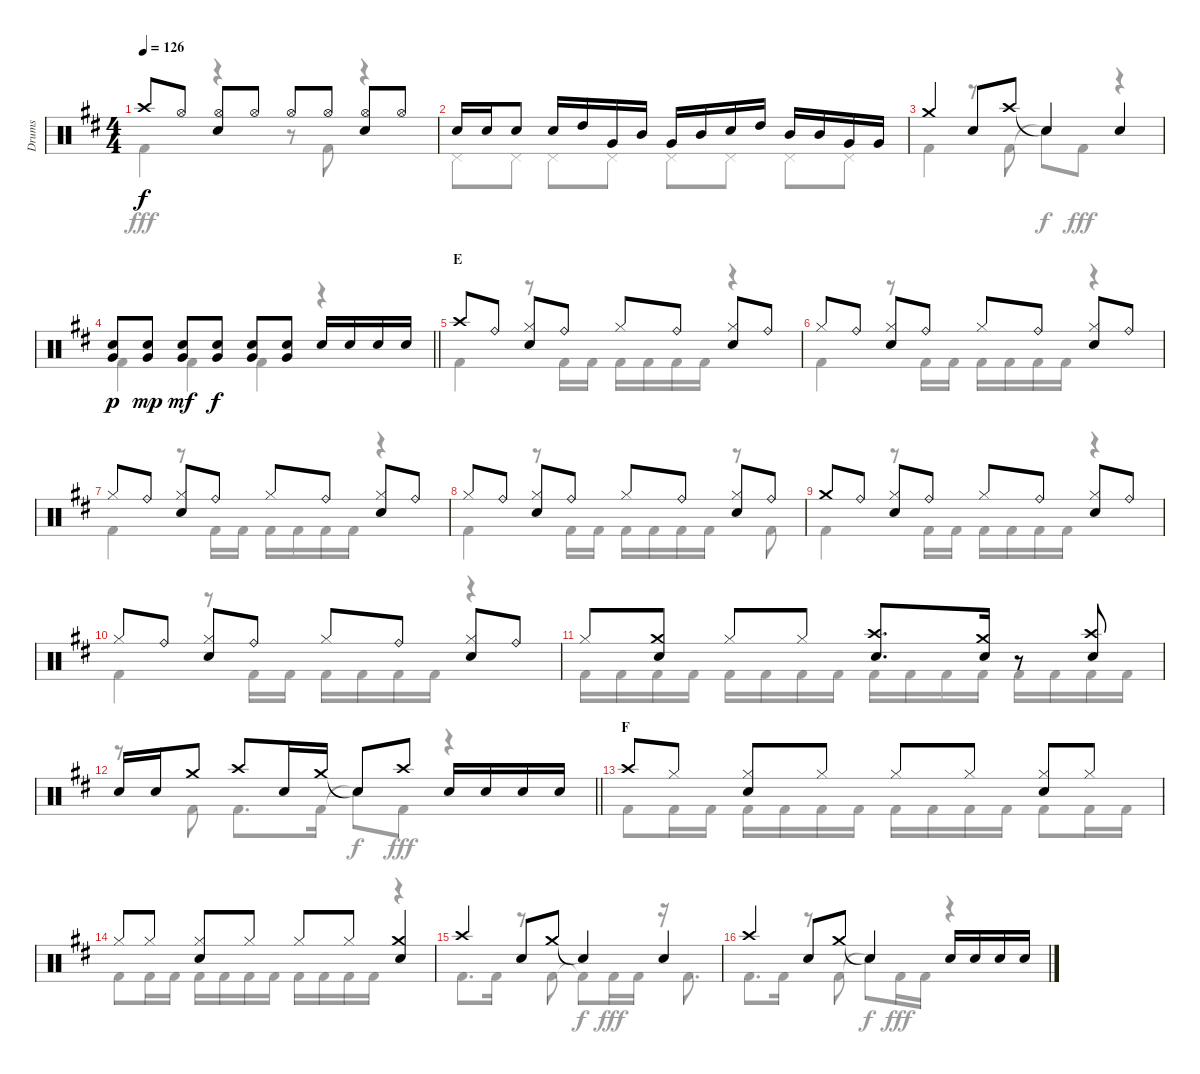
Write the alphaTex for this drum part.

\track ("Drums" "Drums") {instrument percussion}
\staff {score}
\articulation defaults
\voice
\ts (4 4)
\tempo 126
\clef neutral
\ks d "Crash high (hit)".8{dy f} "Hi-Hat (open)".8
("Hi-Hat (open)" "Snare (hit) 2").8 "Hi-Hat (open)".8 "Hi-Hat (open)".8 "Hi-Hat (open)".8 ("Hi-Hat (open)" "Snare (hit) 2").8 "Hi-Hat (open)".8 |
"Snare (hit) 2".16 "Snare (hit) 2".16 "Snare (hit) 2".8 "Snare (hit) 2".16 "High Tom (hit)".16 "Very Low Tom (hit)".16 "Mid Tom (hit)".16 "Very Low Tom (hit)".16 "Mid Tom (hit)".16 "Snare (hit) 2".16 "High Tom (hit)".16 "Mid Tom (hit)".16 "Mid Tom (hit)".16 "Very Low Tom (hit)".16 "Very Low Tom (hit)".16 |
"Crash medium (hit)".4 "Snare (hit) 2".8 "Crash high (hit)".8 "Snare (hit)"{t}.4 "Snare (hit) 2".4 |
\barLineRight lightlight
("Snare (hit) 2" "Very Low Tom (hit)").8{dy p} ("Snare (hit) 2" "Very Low Tom (hit)").8{dy mp} ("Snare (hit) 2" "Very Low Tom (hit)").8{dy mf} ("Snare (hit) 2" "Very Low Tom (hit)").8{dy f} ("Snare (hit) 2" "Very Low Tom (hit)").8 ("Snare (hit) 2" "Very Low Tom (hit)").8 "Snare (hit) 2".16 "Snare (hit) 2".16 "Snare (hit) 2".16 "Snare (hit) 2".16 |
\section ("" "E")
"Crash high (hit)".8 "Ride (bell)".8 ("Hi-Hat (closed)" "Snare (hit) 2").8 "Ride (bell)".8 "Hi-Hat (closed)".8 "Ride (bell)".8 ("Hi-Hat (closed)" "Snare (hit) 2").8 "Ride (bell)".8 |
"Hi-Hat (closed)".8 "Ride (bell)".8 ("Hi-Hat (closed)" "Snare (hit) 2").8 "Ride (bell)".8 "Hi-Hat (closed)".8 "Ride (bell)".8 ("Hi-Hat (closed)" "Snare (hit) 2").8 "Ride (bell)".8 |
"Hi-Hat (closed)".8 "Ride (bell)".8 ("Hi-Hat (closed)" "Snare (hit) 2").8 "Ride (bell)".8 "Hi-Hat (closed)".8 "Ride (bell)".8 ("Hi-Hat (closed)" "Snare (hit) 2").8 "Ride (bell)".8 |
"Hi-Hat (closed)".8 "Ride (bell)".8 ("Hi-Hat (closed)" "Snare (hit) 2").8 "Ride (bell)".8 "Hi-Hat (closed)".8 "Ride (bell)".8 ("Hi-Hat (closed)" "Snare (hit) 2").8 "Ride (bell)".8 |
"Crash medium (hit)".8 "Ride (bell)".8 ("Hi-Hat (closed)" "Snare (hit) 2").8 "Ride (bell)".8 "Hi-Hat (closed)".8 "Ride (bell)".8 ("Hi-Hat (closed)" "Snare (hit) 2").8 "Ride (bell)".8 |
"Hi-Hat (closed)".8 "Ride (bell)".8 ("Hi-Hat (closed)" "Snare (hit) 2").8 "Ride (bell)".8 "Hi-Hat (closed)".8 "Ride (bell)".8 ("Hi-Hat (closed)" "Snare (hit) 2").8 "Ride (bell)".8 |
"Hi-Hat (closed)".8 ("Crash medium (hit)" "Snare (hit) 2").8 "Hi-Hat (closed)".8 "Hi-Hat (closed)".8 ("Crash high (hit)" "Snare (hit) 2").8{d} ("Crash medium (hit)" "Snare (hit) 2").16 r.8 ("Crash high (hit)" "Snare (hit) 2").8 |
\barLineRight lightlight "Snare (hit) 2".16 "Snare (hit) 2".16 "Crash medium (hit)".8 "Crash high (hit)".8 "Snare (hit) 2".16 "Crash medium (hit)".16 "Snare (hit)"{t}.8 "Crash high (hit)".8 "Snare (hit) 2".16 "Snare (hit) 2".16 "Snare (hit) 2".16 "Snare (hit) 2".16
|
\section ("" "F")
"Crash high (hit)".8 "Hi-Hat (closed)".8 ("Hi-Hat (closed)" "Snare (hit) 2").8 "Hi-Hat (closed)".8 "Hi-Hat (closed)".8 "Hi-Hat (closed)".8 ("Hi-Hat (closed)" "Snare (hit) 2").8 "Hi-Hat (closed)".8 |
"Hi-Hat (closed)".8 "Hi-Hat (closed)".8 ("Hi-Hat (closed)" "Snare (hit) 2").8 "Hi-Hat (closed)".8 "Hi-Hat (closed)".8 "Hi-Hat (closed)".8 ("Crash medium (hit)" "Snare (hit) 2").4 |
"Crash high (hit)".4 "Snare (hit) 2".8 "Crash medium (hit)".8 "Snare (hit)"{t}.4 "Snare (hit) 2".4 |
"Crash high (hit)".4 "Snare (hit) 2".8 "Crash medium (hit)".8 "Snare (hit)"{t}.4 "Snare (hit) 2".16 "Snare (hit) 2".16 "Snare (hit) 2".16 "Snare (hit) 2".16
\voice
\clef neutral
\ottava regular
\simile none
\ks d "Kick (hit) 2".4{dy fff}
r.4 r.8 "Kick (hit) 2".8 r.4 |
"Pedal Hi-Hat (hit)".8 "Pedal Hi-Hat (hit)".8 "Pedal Hi-Hat (hit)".8 "Pedal Hi-Hat (hit)".8 "Pedal Hi-Hat (hit)".8 "Pedal Hi-Hat (hit)".8 "Pedal Hi-Hat (hit)".8 "Pedal Hi-Hat (hit)".8 |
"Kick (hit) 2".4 r.8 "Kick (hit) 2".8 "Snare (hit)"{t}.8{dy f} "Kick (hit) 2".8{dy fff} r.4 |
\barLineRight lightlight "Kick (hit) 2".4 "Kick (hit) 2".4 "Kick (hit) 2".4
r.4 |
"Kick (hit) 2".4 r.8 "Kick (hit) 2".16 "Kick (hit) 2".16 "Kick (hit) 2".16 "Kick (hit) 2".16 "Kick (hit) 2".16 "Kick (hit) 2".16 r.4 |
"Kick (hit) 2".4 r.8 "Kick (hit) 2".16 "Kick (hit) 2".16 "Kick (hit) 2".16 "Kick (hit) 2".16 "Kick (hit) 2".16 "Kick (hit) 2".16 r.4 |
"Kick (hit) 2".4 r.8 "Kick (hit) 2".16 "Kick (hit) 2".16 "Kick (hit) 2".16 "Kick (hit) 2".16 "Kick (hit) 2".16 "Kick (hit) 2".16 r.4 |
"Kick (hit) 2".4 r.8 "Kick (hit) 2".16 "Kick (hit) 2".16 "Kick (hit) 2".16 "Kick (hit) 2".16 "Kick (hit) 2".16 "Kick (hit) 2".16 r.8 "Kick (hit) 2".8 |
"Kick (hit) 2".4 r.8 "Kick (hit) 2".16 "Kick (hit) 2".16 "Kick (hit) 2".16 "Kick (hit) 2".16 "Kick (hit) 2".16 "Kick (hit) 2".16 r.4 |
"Kick (hit) 2".4 r.8 "Kick (hit) 2".16 "Kick (hit) 2".16 "Kick (hit) 2".16 "Kick (hit) 2".16 "Kick (hit) 2".16 "Kick (hit) 2".16 r.4 |
"Kick (hit) 2".16 "Kick (hit) 2".16 "Kick (hit) 2".16 "Kick (hit) 2".16 "Kick (hit) 2".16 "Kick (hit) 2".16 "Kick (hit) 2".16 "Kick (hit) 2".16 "Kick (hit) 2".16 "Kick (hit) 2".16 "Kick (hit) 2".16 "Kick (hit) 2".16 "Kick (hit) 2".16 "Kick (hit) 2".16 "Kick (hit) 2".16 "Kick (hit) 2".16 |
\barLineRight lightlight
r.8 "Kick (hit) 2".8 "Kick (hit) 2".8{d} "Kick (hit) 2".16 "Snare (hit)"{t}.8{dy f} "Kick (hit) 2".8{dy fff} r.4 |
"Kick (hit) 2".8 "Kick (hit) 2".16 "Kick (hit) 2".16 "Kick (hit) 2".16 "Kick (hit) 2".16 "Kick (hit) 2".16 "Kick (hit) 2".16 "Kick (hit) 2".16 "Kick (hit) 2".16 "Kick (hit) 2".16 "Kick (hit) 2".16 "Kick (hit) 2".8 "Kick (hit) 2".16 "Kick (hit) 2".16 |
"Kick (hit) 2".8 "Kick (hit) 2".16 "Kick (hit) 2".16 "Kick (hit) 2".16 "Kick (hit) 2".16 "Kick (hit) 2".16 "Kick (hit) 2".16 "Kick (hit) 2".16 "Kick (hit) 2".16 "Kick (hit) 2".16 "Kick (hit) 2".16 r.4 |
"Kick (hit) 2".8{d} "Kick (hit) 2".16 r.8 "Kick (hit) 2".8 "Kick (hit) 2"{t}.8{dy f} "Kick (hit) 2".16{dy fff} "Kick (hit) 2".16 r.16 "Kick (hit) 2".8{d} |
"Kick (hit) 2".8{d} "Kick (hit) 2".16 r.8 "Kick (hit) 2".8 "Snare (hit)"{t}.8{dy f} "Kick (hit) 2".16{dy fff} "Kick (hit) 2".16 r.4
